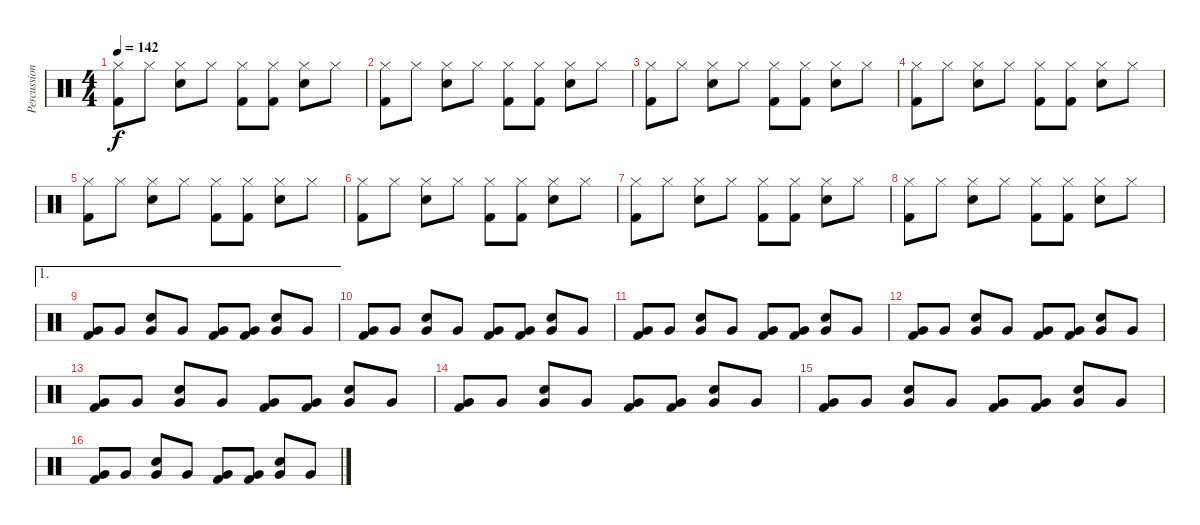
\track ("Percussion" "Percussion") {instrument percussion}
\staff {score}
\articulation defaults
\ts (4 4)
\tempo 142
\clef neutral
\ks c
("Hi-Hat (closed)" "Kick (hit) 2").8{dy f} "Hi-Hat (closed)".8 ("Hi-Hat (closed)" "Electric Snare (hit)").8 "Hi-Hat (closed)".8 ("Hi-Hat (closed)" "Kick (hit) 2").8 ("Hi-Hat (closed)" "Kick (hit) 2").8 ("Hi-Hat (closed)" "Electric Snare (hit)").8 "Hi-Hat (closed)".8 |
("Hi-Hat (closed)" "Kick (hit) 2").8 "Hi-Hat (closed)".8 ("Hi-Hat (closed)" "Electric Snare (hit)").8 "Hi-Hat (closed)".8 ("Hi-Hat (closed)" "Kick (hit) 2").8 ("Hi-Hat (closed)" "Kick (hit) 2").8 ("Hi-Hat (closed)" "Electric Snare (hit)").8 "Hi-Hat (closed)".8 |
("Hi-Hat (closed)" "Kick (hit) 2").8 "Hi-Hat (closed)".8 ("Hi-Hat (closed)" "Electric Snare (hit)").8 "Hi-Hat (closed)".8 ("Hi-Hat (closed)" "Kick (hit) 2").8 ("Hi-Hat (closed)" "Kick (hit) 2").8 ("Hi-Hat (closed)" "Electric Snare (hit)").8 "Hi-Hat (closed)".8 |
("Hi-Hat (closed)" "Kick (hit) 2").8 "Hi-Hat (closed)".8 ("Hi-Hat (closed)" "Electric Snare (hit)").8 "Hi-Hat (closed)".8 ("Hi-Hat (closed)" "Kick (hit) 2").8 ("Hi-Hat (closed)" "Kick (hit) 2").8 ("Hi-Hat (closed)" "Electric Snare (hit)").8 "Hi-Hat (closed)".8 |
("Hi-Hat (closed)" "Kick (hit) 2").8 "Hi-Hat (closed)".8 ("Hi-Hat (closed)" "Electric Snare (hit)").8 "Hi-Hat (closed)".8 ("Hi-Hat (closed)" "Kick (hit) 2").8 ("Hi-Hat (closed)" "Kick (hit) 2").8 ("Hi-Hat (closed)" "Electric Snare (hit)").8 "Hi-Hat (closed)".8 |
("Hi-Hat (closed)" "Kick (hit) 2").8 "Hi-Hat (closed)".8 ("Hi-Hat (closed)" "Electric Snare (hit)").8 "Hi-Hat (closed)".8 ("Hi-Hat (closed)" "Kick (hit) 2").8 ("Hi-Hat (closed)" "Kick (hit) 2").8 ("Hi-Hat (closed)" "Electric Snare (hit)").8 "Hi-Hat (closed)".8 |
("Hi-Hat (closed)" "Kick (hit) 2").8 "Hi-Hat (closed)".8 ("Hi-Hat (closed)" "Electric Snare (hit)").8 "Hi-Hat (closed)".8 ("Hi-Hat (closed)" "Kick (hit) 2").8 ("Hi-Hat (closed)" "Kick (hit) 2").8 ("Hi-Hat (closed)" "Electric Snare (hit)").8 "Hi-Hat (closed)".8 |
("Hi-Hat (closed)" "Kick (hit) 2").8 "Hi-Hat (closed)".8 ("Hi-Hat (closed)" "Electric Snare (hit)").8 "Hi-Hat (closed)".8 ("Hi-Hat (closed)" "Kick (hit) 2").8 ("Hi-Hat (closed)" "Kick (hit) 2").8 ("Hi-Hat (closed)" "Electric Snare (hit)").8 "Hi-Hat (closed)".8 |
\ae 1
("Very Low Tom (hit)" "Kick (hit) 2").8 "Very Low Tom (hit)".8 ("Very Low Tom (hit)" "Electric Snare (hit)").8 "Very Low Tom (hit)".8 ("Very Low Tom (hit)" "Kick (hit) 2").8 ("Very Low Tom (hit)" "Kick (hit) 2").8 ("Very Low Tom (hit)" "Electric Snare (hit)").8 "Very Low Tom (hit)".8 |
("Very Low Tom (hit)" "Kick (hit) 2").8 "Very Low Tom (hit)".8 ("Very Low Tom (hit)" "Electric Snare (hit)").8 "Very Low Tom (hit)".8 ("Very Low Tom (hit)" "Kick (hit) 2").8 ("Very Low Tom (hit)" "Kick (hit) 2").8 ("Very Low Tom (hit)" "Electric Snare (hit)").8 "Very Low Tom (hit)".8 |
("Very Low Tom (hit)" "Kick (hit) 2").8 "Very Low Tom (hit)".8 ("Very Low Tom (hit)" "Electric Snare (hit)").8 "Very Low Tom (hit)".8 ("Very Low Tom (hit)" "Kick (hit) 2").8 ("Very Low Tom (hit)" "Kick (hit) 2").8 ("Very Low Tom (hit)" "Electric Snare (hit)").8 "Very Low Tom (hit)".8 |
("Very Low Tom (hit)" "Kick (hit) 2").8 "Very Low Tom (hit)".8 ("Very Low Tom (hit)" "Electric Snare (hit)").8 "Very Low Tom (hit)".8 ("Very Low Tom (hit)" "Kick (hit) 2").8 ("Very Low Tom (hit)" "Kick (hit) 2").8 ("Very Low Tom (hit)" "Electric Snare (hit)").8 "Very Low Tom (hit)".8 |
("Very Low Tom (hit)" "Kick (hit) 2").8 "Very Low Tom (hit)".8 ("Very Low Tom (hit)" "Electric Snare (hit)").8 "Very Low Tom (hit)".8 ("Very Low Tom (hit)" "Kick (hit) 2").8 ("Very Low Tom (hit)" "Kick (hit) 2").8 ("Very Low Tom (hit)" "Electric Snare (hit)").8 "Very Low Tom (hit)".8 |
("Very Low Tom (hit)" "Kick (hit) 2").8 "Very Low Tom (hit)".8 ("Very Low Tom (hit)" "Electric Snare (hit)").8 "Very Low Tom (hit)".8 ("Very Low Tom (hit)" "Kick (hit) 2").8 ("Very Low Tom (hit)" "Kick (hit) 2").8 ("Very Low Tom (hit)" "Electric Snare (hit)").8 "Very Low Tom (hit)".8 |
("Very Low Tom (hit)" "Kick (hit) 2").8 "Very Low Tom (hit)".8 ("Very Low Tom (hit)" "Electric Snare (hit)").8 "Very Low Tom (hit)".8 ("Very Low Tom (hit)" "Kick (hit) 2").8 ("Very Low Tom (hit)" "Kick (hit) 2").8 ("Very Low Tom (hit)" "Electric Snare (hit)").8 "Very Low Tom (hit)".8 |
("Very Low Tom (hit)" "Kick (hit) 2").8 "Very Low Tom (hit)".8 ("Very Low Tom (hit)" "Electric Snare (hit)").8 "Very Low Tom (hit)".8 ("Very Low Tom (hit)" "Kick (hit) 2").8 ("Very Low Tom (hit)" "Kick (hit) 2").8 ("Very Low Tom (hit)" "Electric Snare (hit)").8 "Very Low Tom (hit)".8
